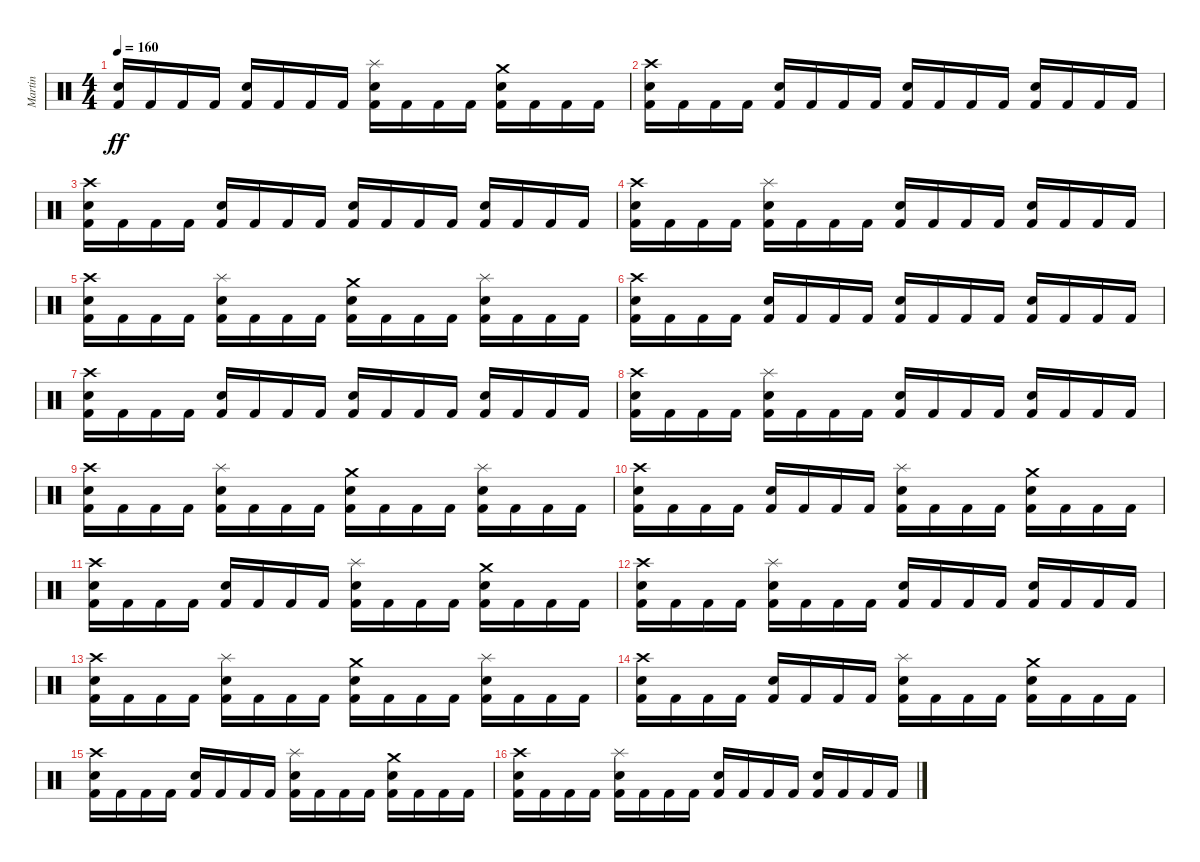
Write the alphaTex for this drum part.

\track ("Martin" "Martin") {instrument percussion}
\staff {score}
\articulation defaults
\ts (4 4)
\tempo 160
\clef neutral
\ks c
("Electric Snare (hit)" "Kick (hit) 2").16{dy ff} "Kick (hit) 2".16 "Kick (hit) 2".16 "Kick (hit) 2".16 ("Electric Snare (hit)" "Kick (hit) 2").16 "Kick (hit) 2".16 "Kick (hit) 2".16 "Kick (hit) 2".16 ("Splash (hit)" "Electric Snare (hit)" "Kick (hit) 2").16 "Kick (hit) 2".16 "Kick (hit) 2".16 "Kick (hit) 2".16 ("Crash medium (hit)" "Electric Snare (hit)" "Kick (hit) 2").16 "Kick (hit) 2".16 "Kick (hit) 2".16 "Kick (hit) 2".16 |
("Crash high (hit)" "Electric Snare (hit)" "Kick (hit) 2").16 "Kick (hit) 2".16 "Kick (hit) 2".16 "Kick (hit) 2".16 ("Electric Snare (hit)" "Kick (hit) 2").16 "Kick (hit) 2".16 "Kick (hit) 2".16 "Kick (hit) 2".16 ("Electric Snare (hit)" "Kick (hit) 2").16 "Kick (hit) 2".16 "Kick (hit) 2".16 "Kick (hit) 2".16 ("Electric Snare (hit)" "Kick (hit) 2").16 "Kick (hit) 2".16 "Kick (hit) 2".16 "Kick (hit) 2".16 |
("Crash high (hit)" "Electric Snare (hit)" "Kick (hit) 2").16 "Kick (hit) 2".16 "Kick (hit) 2".16 "Kick (hit) 2".16 ("Electric Snare (hit)" "Kick (hit) 2").16 "Kick (hit) 2".16 "Kick (hit) 2".16 "Kick (hit) 2".16 ("Electric Snare (hit)" "Kick (hit) 2").16 "Kick (hit) 2".16 "Kick (hit) 2".16 "Kick (hit) 2".16 ("Electric Snare (hit)" "Kick (hit) 2").16 "Kick (hit) 2".16 "Kick (hit) 2".16 "Kick (hit) 2".16 |
("Crash high (hit)" "Electric Snare (hit)" "Kick (hit) 2").16 "Kick (hit) 2".16 "Kick (hit) 2".16 "Kick (hit) 2".16 ("Splash (hit)" "Electric Snare (hit)" "Kick (hit) 2").16 "Kick (hit) 2".16 "Kick (hit) 2".16 "Kick (hit) 2".16 ("Electric Snare (hit)" "Kick (hit) 2").16 "Kick (hit) 2".16 "Kick (hit) 2".16 "Kick (hit) 2".16 ("Electric Snare (hit)" "Kick (hit) 2").16 "Kick (hit) 2".16 "Kick (hit) 2".16 "Kick (hit) 2".16 |
("Crash high (hit)" "Electric Snare (hit)" "Kick (hit) 2").16 "Kick (hit) 2".16 "Kick (hit) 2".16 "Kick (hit) 2".16 ("Splash (hit)" "Electric Snare (hit)" "Kick (hit) 2").16 "Kick (hit) 2".16 "Kick (hit) 2".16 "Kick (hit) 2".16 ("Crash medium (hit)" "Electric Snare (hit)" "Kick (hit) 2").16 "Kick (hit) 2".16 "Kick (hit) 2".16 "Kick (hit) 2".16 ("Splash (hit)" "Electric Snare (hit)" "Kick (hit) 2").16 "Kick (hit) 2".16 "Kick (hit) 2".16 "Kick (hit) 2".16 |
("Crash high (hit)" "Electric Snare (hit)" "Kick (hit) 2").16 "Kick (hit) 2".16 "Kick (hit) 2".16 "Kick (hit) 2".16 ("Electric Snare (hit)" "Kick (hit) 2").16 "Kick (hit) 2".16 "Kick (hit) 2".16 "Kick (hit) 2".16 ("Electric Snare (hit)" "Kick (hit) 2").16 "Kick (hit) 2".16 "Kick (hit) 2".16 "Kick (hit) 2".16 ("Electric Snare (hit)" "Kick (hit) 2").16 "Kick (hit) 2".16 "Kick (hit) 2".16 "Kick (hit) 2".16 |
("Crash high (hit)" "Electric Snare (hit)" "Kick (hit) 2").16 "Kick (hit) 2".16 "Kick (hit) 2".16 "Kick (hit) 2".16 ("Electric Snare (hit)" "Kick (hit) 2").16 "Kick (hit) 2".16 "Kick (hit) 2".16 "Kick (hit) 2".16 ("Electric Snare (hit)" "Kick (hit) 2").16 "Kick (hit) 2".16 "Kick (hit) 2".16 "Kick (hit) 2".16 ("Electric Snare (hit)" "Kick (hit) 2").16 "Kick (hit) 2".16 "Kick (hit) 2".16 "Kick (hit) 2".16 |
("Crash high (hit)" "Electric Snare (hit)" "Kick (hit) 2").16 "Kick (hit) 2".16 "Kick (hit) 2".16 "Kick (hit) 2".16 ("Splash (hit)" "Electric Snare (hit)" "Kick (hit) 2").16 "Kick (hit) 2".16 "Kick (hit) 2".16 "Kick (hit) 2".16 ("Electric Snare (hit)" "Kick (hit) 2").16 "Kick (hit) 2".16 "Kick (hit) 2".16 "Kick (hit) 2".16 ("Electric Snare (hit)" "Kick (hit) 2").16 "Kick (hit) 2".16 "Kick (hit) 2".16 "Kick (hit) 2".16 |
("Crash high (hit)" "Electric Snare (hit)" "Kick (hit) 2").16 "Kick (hit) 2".16 "Kick (hit) 2".16 "Kick (hit) 2".16 ("Splash (hit)" "Electric Snare (hit)" "Kick (hit) 2").16 "Kick (hit) 2".16 "Kick (hit) 2".16 "Kick (hit) 2".16 ("Crash medium (hit)" "Electric Snare (hit)" "Kick (hit) 2").16 "Kick (hit) 2".16 "Kick (hit) 2".16 "Kick (hit) 2".16 ("Splash (hit)" "Electric Snare (hit)" "Kick (hit) 2").16 "Kick (hit) 2".16 "Kick (hit) 2".16 "Kick (hit) 2".16 |
("Crash high (hit)" "Electric Snare (hit)" "Kick (hit) 2").16 "Kick (hit) 2".16 "Kick (hit) 2".16 "Kick (hit) 2".16 ("Electric Snare (hit)" "Kick (hit) 2").16 "Kick (hit) 2".16 "Kick (hit) 2".16 "Kick (hit) 2".16 ("Splash (hit)" "Electric Snare (hit)" "Kick (hit) 2").16 "Kick (hit) 2".16 "Kick (hit) 2".16 "Kick (hit) 2".16 ("Crash medium (hit)" "Electric Snare (hit)" "Kick (hit) 2").16 "Kick (hit) 2".16 "Kick (hit) 2".16 "Kick (hit) 2".16 |
("Crash high (hit)" "Electric Snare (hit)" "Kick (hit) 2").16 "Kick (hit) 2".16 "Kick (hit) 2".16 "Kick (hit) 2".16 ("Electric Snare (hit)" "Kick (hit) 2").16 "Kick (hit) 2".16 "Kick (hit) 2".16 "Kick (hit) 2".16 ("Splash (hit)" "Electric Snare (hit)" "Kick (hit) 2").16 "Kick (hit) 2".16 "Kick (hit) 2".16 "Kick (hit) 2".16 ("Crash medium (hit)" "Electric Snare (hit)" "Kick (hit) 2").16 "Kick (hit) 2".16 "Kick (hit) 2".16 "Kick (hit) 2".16 |
("Crash high (hit)" "Electric Snare (hit)" "Kick (hit) 2").16 "Kick (hit) 2".16 "Kick (hit) 2".16 "Kick (hit) 2".16 ("Splash (hit)" "Electric Snare (hit)" "Kick (hit) 2").16 "Kick (hit) 2".16 "Kick (hit) 2".16 "Kick (hit) 2".16 ("Electric Snare (hit)" "Kick (hit) 2").16 "Kick (hit) 2".16 "Kick (hit) 2".16 "Kick (hit) 2".16 ("Electric Snare (hit)" "Kick (hit) 2").16 "Kick (hit) 2".16 "Kick (hit) 2".16 "Kick (hit) 2".16 |
("Crash high (hit)" "Electric Snare (hit)" "Kick (hit) 2").16 "Kick (hit) 2".16 "Kick (hit) 2".16 "Kick (hit) 2".16 ("Splash (hit)" "Electric Snare (hit)" "Kick (hit) 2").16 "Kick (hit) 2".16 "Kick (hit) 2".16 "Kick (hit) 2".16 ("Crash medium (hit)" "Electric Snare (hit)" "Kick (hit) 2").16 "Kick (hit) 2".16 "Kick (hit) 2".16 "Kick (hit) 2".16 ("Splash (hit)" "Electric Snare (hit)" "Kick (hit) 2").16 "Kick (hit) 2".16 "Kick (hit) 2".16 "Kick (hit) 2".16 |
("Crash high (hit)" "Electric Snare (hit)" "Kick (hit) 2").16 "Kick (hit) 2".16 "Kick (hit) 2".16 "Kick (hit) 2".16 ("Electric Snare (hit)" "Kick (hit) 2").16 "Kick (hit) 2".16 "Kick (hit) 2".16 "Kick (hit) 2".16 ("Splash (hit)" "Electric Snare (hit)" "Kick (hit) 2").16 "Kick (hit) 2".16 "Kick (hit) 2".16 "Kick (hit) 2".16 ("Crash medium (hit)" "Electric Snare (hit)" "Kick (hit) 2").16 "Kick (hit) 2".16 "Kick (hit) 2".16 "Kick (hit) 2".16 |
("Crash high (hit)" "Electric Snare (hit)" "Kick (hit) 2").16 "Kick (hit) 2".16 "Kick (hit) 2".16 "Kick (hit) 2".16 ("Electric Snare (hit)" "Kick (hit) 2").16 "Kick (hit) 2".16 "Kick (hit) 2".16 "Kick (hit) 2".16 ("Splash (hit)" "Electric Snare (hit)" "Kick (hit) 2").16 "Kick (hit) 2".16 "Kick (hit) 2".16 "Kick (hit) 2".16 ("Crash medium (hit)" "Electric Snare (hit)" "Kick (hit) 2").16 "Kick (hit) 2".16 "Kick (hit) 2".16 "Kick (hit) 2".16 |
("Crash high (hit)" "Electric Snare (hit)" "Kick (hit) 2").16 "Kick (hit) 2".16 "Kick (hit) 2".16 "Kick (hit) 2".16 ("Splash (hit)" "Electric Snare (hit)" "Kick (hit) 2").16 "Kick (hit) 2".16 "Kick (hit) 2".16 "Kick (hit) 2".16 ("Electric Snare (hit)" "Kick (hit) 2").16 "Kick (hit) 2".16 "Kick (hit) 2".16 "Kick (hit) 2".16 ("Electric Snare (hit)" "Kick (hit) 2").16 "Kick (hit) 2".16 "Kick (hit) 2".16 "Kick (hit) 2".16
